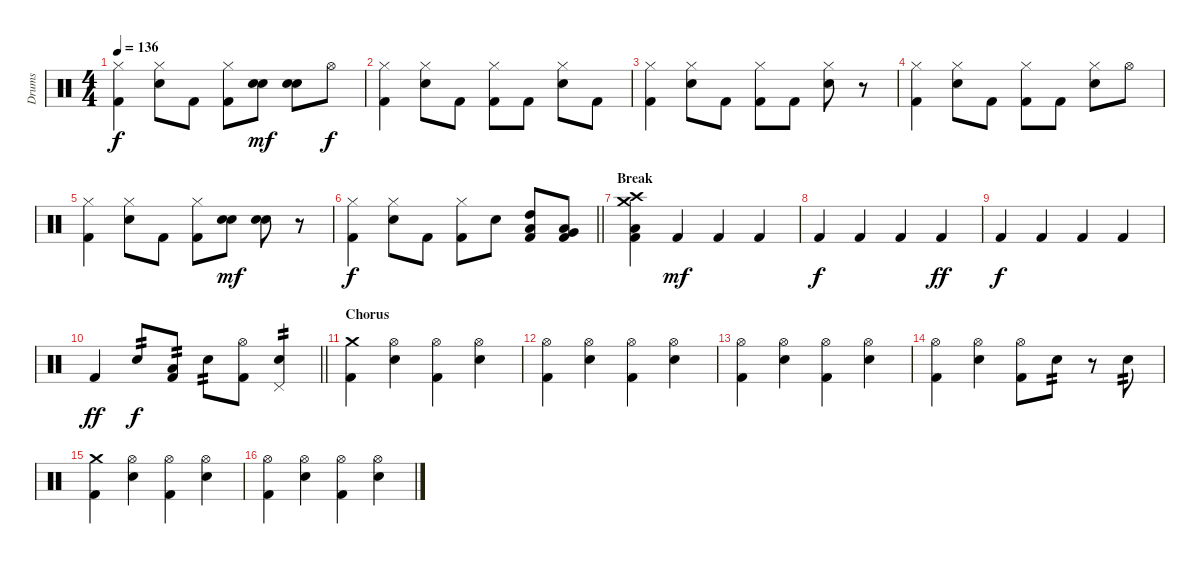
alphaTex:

\track ("Drums" "Drums") {instrument percussion}
\staff {score}
\articulation defaults
\ts (4 4)
\tempo 136
\clef neutral
\ks c
("Hi-Hat (closed)" "Kick (hit) 2").4{dy f} ("Hi-Hat (closed)" "Snare (hit) 2").8 "Kick (hit) 2".8 ("Hi-Hat (closed)" "Kick (hit) 2").8 ("Hand Clap (hit)" "Snare (hit) 2").8{dy mf} ("Hand Clap (hit)" "Snare (hit) 2").8 "Hi-Hat (open)".8{dy f} |
("Hi-Hat (closed)" "Kick (hit) 2").4 ("Hi-Hat (closed)" "Snare (hit) 2").8 "Kick (hit) 2".8 ("Hi-Hat (closed)" "Kick (hit) 2").8 "Kick (hit) 2".8 ("Hi-Hat (closed)" "Snare (hit) 2").8 "Kick (hit) 2".8 |
("Hi-Hat (closed)" "Kick (hit) 2").4 ("Hi-Hat (closed)" "Snare (hit) 2").8 "Kick (hit) 2".8 ("Hi-Hat (closed)" "Kick (hit) 2").8 "Kick (hit) 2".8 ("Hi-Hat (closed)" "Snare (hit) 2").8 r.8 |
("Hi-Hat (closed)" "Kick (hit) 2").4 ("Hi-Hat (closed)" "Snare (hit) 2").8 "Kick (hit) 2".8 ("Hi-Hat (closed)" "Kick (hit) 2").8 "Kick (hit) 2".8 ("Hi-Hat (closed)" "Snare (hit) 2").8 "Hi-Hat (open)".8 |
("Hi-Hat (closed)" "Kick (hit) 2").4 ("Hi-Hat (closed)" "Snare (hit) 2").8 "Kick (hit) 2".8 ("Hi-Hat (closed)" "Kick (hit) 2").8 ("Hand Clap (hit)" "Snare (hit) 2").8{dy mf} ("Hand Clap (hit)" "Snare (hit) 2").8 r.8 |
\barLineRight lightlight
("Hi-Hat (closed)" "Kick (hit) 2").4{dy f} ("Hi-Hat (closed)" "Snare (hit) 2").8 "Kick (hit) 2".8 ("Hi-Hat (closed)" "Kick (hit) 2").8 "Snare (hit) 2".8 ("High Tom (hit)" "Low Tom (hit)" "Kick (hit) 2").8 ("Very Low Tom (hit)" "Low Floor Tom (hit)" "Kick (hit) 2").8 |
\section ("" "Break")
("Crash high (hit)" "Crash medium (hit)" "Low Floor Tom (hit)" "Kick (hit) 2").4 "Kick (hit) 2".4{dy mf} "Kick (hit) 2".4 "Kick (hit) 2".4 |
"Kick (hit) 2".4{dy f} "Kick (hit) 2".4 "Kick (hit) 2".4 "Kick (hit) 2".4{dy ff} |
"Kick (hit) 2".4{dy f} "Kick (hit) 2".4 "Kick (hit) 2".4 "Kick (hit) 2".4 |
\barLineRight lightlight "Kick (hit) 2".4{dy ff} "Snare (hit) 2".8{tp 2 dy f}
("Low Tom (hit)" "Kick (hit) 2").8{tp 2} "Snare (hit) 2".8{tp 2} ("Hi-Hat (open)" "Kick (hit) 2").8 ("Pedal Hi-Hat (hit)" "Snare (hit) 2").4{tp 2} |
\section ("" "Chorus")
("Crash medium (hit)" "Kick (hit) 2").4 ("Hi-Hat (open)" "Snare (hit) 2").4 ("Hi-Hat (open)" "Kick (hit) 2").4 ("Hi-Hat (open)" "Snare (hit) 2").4 |
("Hi-Hat (open)" "Kick (hit) 2").4 ("Hi-Hat (open)" "Snare (hit) 2").4 ("Hi-Hat (open)" "Kick (hit) 2").4 ("Hi-Hat (open)" "Snare (hit) 2").4 |
("Hi-Hat (open)" "Kick (hit) 2").4 ("Hi-Hat (open)" "Snare (hit) 2").4 ("Hi-Hat (open)" "Kick (hit) 2").4 ("Hi-Hat (open)" "Snare (hit) 2").4 |
("Hi-Hat (open)" "Kick (hit) 2").4 ("Hi-Hat (open)" "Snare (hit) 2").4 ("Hi-Hat (open)" "Kick (hit) 2").8 "Snare (hit) 2".8{tp 2} r.8 "Snare (hit) 2".8{tp 2} |
("Crash medium (hit)" "Kick (hit) 2").4 ("Hi-Hat (open)" "Snare (hit) 2").4 ("Hi-Hat (open)" "Kick (hit) 2").4 ("Hi-Hat (open)" "Snare (hit) 2").4 |
("Hi-Hat (open)" "Kick (hit) 2").4 ("Hi-Hat (open)" "Snare (hit) 2").4 ("Hi-Hat (open)" "Kick (hit) 2").4 ("Hi-Hat (open)" "Snare (hit) 2").4
